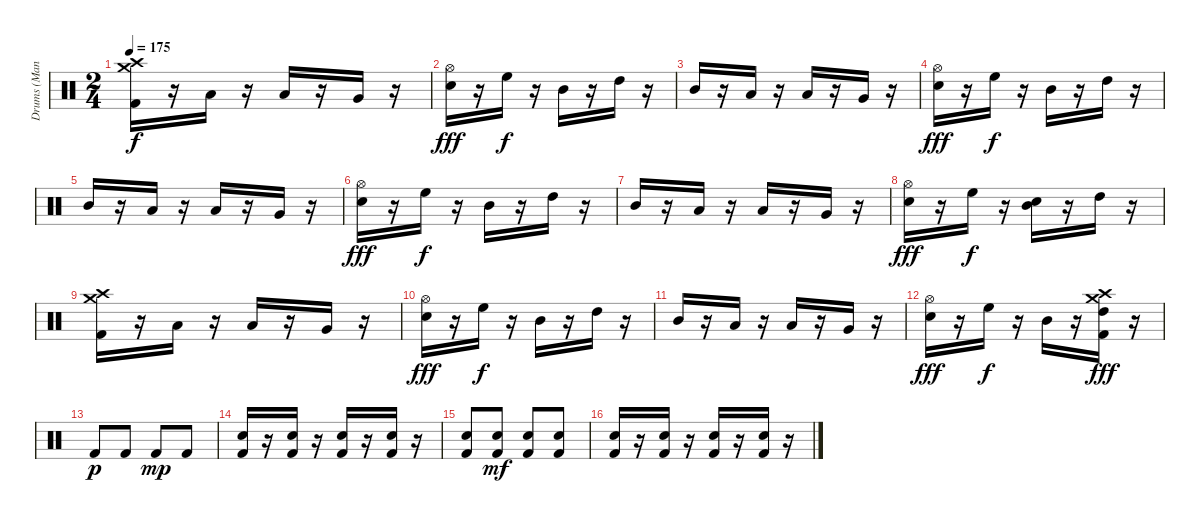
\track ("Drums (Mancino)" "Drums (Man") {instrument percussion}
\staff {score}
\articulation defaults
\ts (2 4)
\tempo 175
\clef neutral
\ks c
("Crash medium (hit)" "Crash high (hit)" "Kick (hit) 2").16{dy f} r.16 "Low Tom (hit)".16 r.16 "Low Floor Tom (hit)".16 r.16 "Very Low Tom (hit)".16 r.16 |
("Hi-Hat (open)" "Electric Snare (hit)").16{dy fff} r.16 "High Floor Tom (hit)".16{dy f} r.16 "Mid Tom (hit)".16 r.16 "High Tom (hit)".16 r.16 |
"Mid Tom (hit)".16 r.16 "Low Floor Tom (hit)".16 r.16 "Low Tom (hit)".16 r.16 "Very Low Tom (hit)".16 r.16 |
("Hi-Hat (open)" "Electric Snare (hit)").16{dy fff} r.16 "High Floor Tom (hit)".16{dy f} r.16 "Mid Tom (hit)".16 r.16 "High Tom (hit)".16 r.16 |
"Mid Tom (hit)".16 r.16 "Low Floor Tom (hit)".16 r.16 "Low Tom (hit)".16 r.16 "Very Low Tom (hit)".16 r.16 |
("Hi-Hat (open)" "Electric Snare (hit)").16{dy fff} r.16 "High Floor Tom (hit)".16{dy f} r.16 "Mid Tom (hit)".16 r.16 "High Tom (hit)".16 r.16 |
"Mid Tom (hit)".16 r.16 "Low Floor Tom (hit)".16 r.16 "Low Tom (hit)".16 r.16 "Very Low Tom (hit)".16 r.16 |
("Hi-Hat (open)" "Electric Snare (hit)").16{dy fff} r.16 "High Floor Tom (hit)".16{dy f} r.16 ("Mid Tom (hit)" "Electric Snare (hit)").16 r.16 "High Tom (hit)".16 r.16 |
("Crash medium (hit)" "Crash high (hit)" "Kick (hit) 2").16 r.16 "Low Tom (hit)".16 r.16 "Low Floor Tom (hit)".16 r.16 "Very Low Tom (hit)".16 r.16 |
("Hi-Hat (open)" "Electric Snare (hit)").16{dy fff} r.16 "High Floor Tom (hit)".16{dy f} r.16 "Mid Tom (hit)".16 r.16 "High Tom (hit)".16 r.16 |
"Mid Tom (hit)".16 r.16 "Low Floor Tom (hit)".16 r.16 "Low Tom (hit)".16 r.16 "Very Low Tom (hit)".16 r.16 |
("Hi-Hat (open)" "Electric Snare (hit)").16{dy fff} r.16 "High Floor Tom (hit)".16{dy f} r.16 "Mid Tom (hit)".16 r.16 ("Crash medium (hit)" "Crash high (hit)" "High Tom (hit)" "Kick (hit) 2").16{dy fff} r.16 |
"Kick (hit) 2".8{dy p} "Kick (hit) 2".8 "Kick (hit) 2".8{dy mp} "Kick (hit) 2".8 |
("Electric Snare (hit)" "Kick (hit) 2").16 r.16 ("Electric Snare (hit)" "Kick (hit) 2").16 r.16 ("Electric Snare (hit)" "Kick (hit) 2").16 r.16 ("Electric Snare (hit)" "Kick (hit) 2").16 r.16 |
("Electric Snare (hit)" "Kick (hit) 2").8 ("Electric Snare (hit)" "Kick (hit) 2").8{dy mf} ("Electric Snare (hit)" "Kick (hit) 2").8 ("Electric Snare (hit)" "Kick (hit) 2").8 |
("Electric Snare (hit)" "Kick (hit) 2").16 r.16 ("Electric Snare (hit)" "Kick (hit) 2").16 r.16 ("Electric Snare (hit)" "Kick (hit) 2").16 r.16 ("Electric Snare (hit)" "Kick (hit) 2").16 r.16
